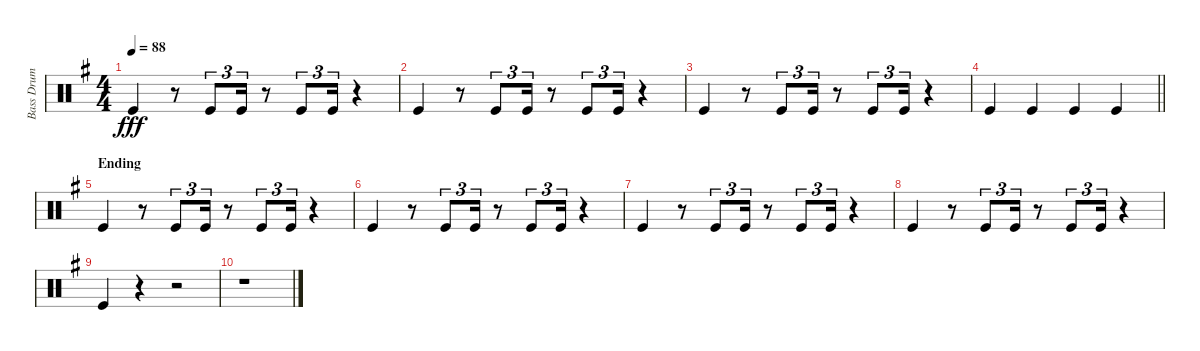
\track ("Bass Drum" "Bass Drum") {instrument percussion}
\staff {score}
\articulation defaults
\ts (4 4)
\tempo 88
\clef neutral
\ks g "Kick (hit)".4{dy fff}
r.8 "Kick (hit)".8{tu (3 2)} "Kick (hit)".16{tu (3 2)} r.8 "Kick (hit)".8{tu (3 2)} "Kick (hit)".16{tu (3 2)} r.4 |
"Kick (hit)".4 r.8 "Kick (hit)".8{tu (3 2)} "Kick (hit)".16{tu (3 2)} r.8 "Kick (hit)".8{tu (3 2)} "Kick (hit)".16{tu (3 2)} r.4 |
"Kick (hit)".4 r.8 "Kick (hit)".8{tu (3 2)} "Kick (hit)".16{tu (3 2)} r.8 "Kick (hit)".8{tu (3 2)} "Kick (hit)".16{tu (3 2)} r.4 |
\barLineRight lightlight "Kick (hit)".4 "Kick (hit)".4 "Kick (hit)".4 "Kick (hit)".4
|
\section ("" "Ending")
"Kick (hit)".4 r.8 "Kick (hit)".8{tu (3 2)} "Kick (hit)".16{tu (3 2)} r.8 "Kick (hit)".8{tu (3 2)} "Kick (hit)".16{tu (3 2)} r.4 |
"Kick (hit)".4 r.8 "Kick (hit)".8{tu (3 2)} "Kick (hit)".16{tu (3 2)} r.8 "Kick (hit)".8{tu (3 2)} "Kick (hit)".16{tu (3 2)} r.4 |
"Kick (hit)".4 r.8 "Kick (hit)".8{tu (3 2)} "Kick (hit)".16{tu (3 2)} r.8 "Kick (hit)".8{tu (3 2)} "Kick (hit)".16{tu (3 2)} r.4 |
"Kick (hit)".4 r.8 "Kick (hit)".8{tu (3 2)} "Kick (hit)".16{tu (3 2)} r.8 "Kick (hit)".8{tu (3 2)} "Kick (hit)".16{tu (3 2)} r.4 |
"Kick (hit)".4 r.4 r.2 |
r.1
